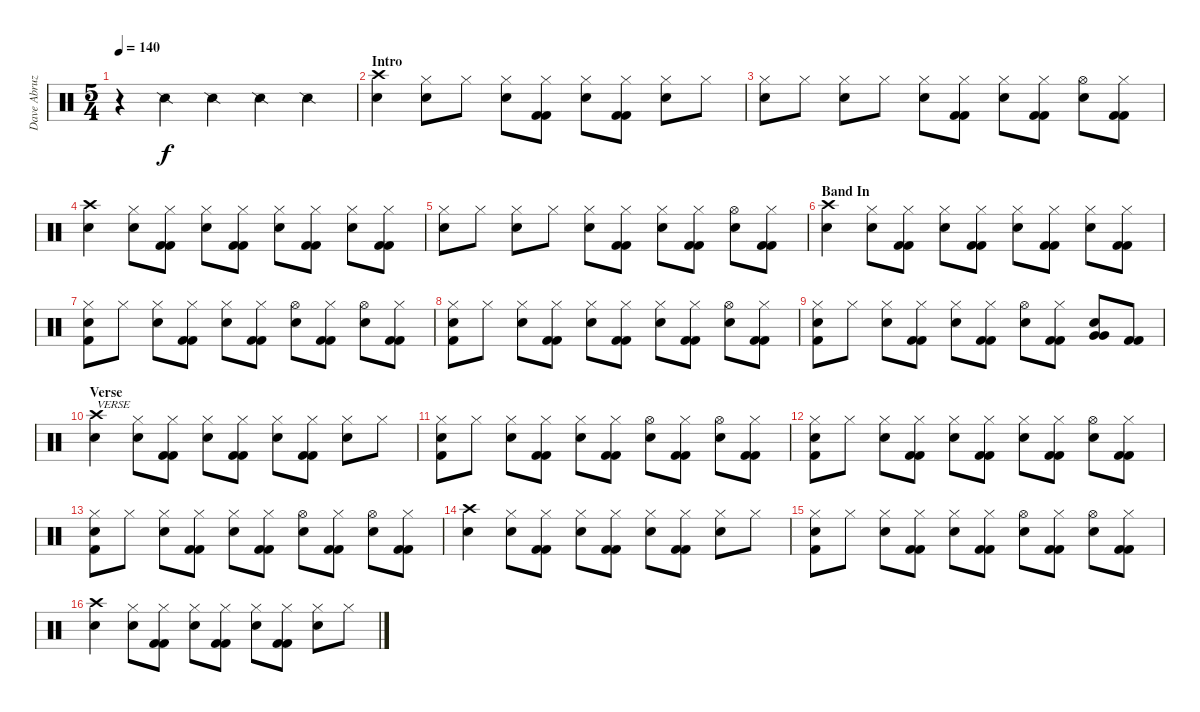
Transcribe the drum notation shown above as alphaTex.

\track ("Dave Abruzzese" "Dave Abruz") {instrument percussion}
\staff {score}
\articulation defaults
\ts (5 4)
\tempo 140
\clef neutral
\ks c
r.4{dy f} "Snare (side stick) 2".4 "Snare (side stick) 2".4 "Snare (side stick) 2".4 "Snare (side stick) 2".4 |
\section ("" "Intro")
("Electric Snare (hit)" "Crash high (hit)").4 ("Electric Snare (hit)" "Hi-Hat (closed)").8 "Hi-Hat (closed)".8 ("Electric Snare (hit)" "Hi-Hat (closed)").8 ("Kick (hit) 2" "Kick (hit) 2" "Hi-Hat (closed)").8 ("Electric Snare (hit)" "Hi-Hat (closed)").8 ("Kick (hit) 2" "Kick (hit) 2" "Hi-Hat (closed)").8 ("Electric Snare (hit)" "Hi-Hat (closed)").8 "Hi-Hat (closed)".8 |
("Electric Snare (hit)" "Hi-Hat (closed)").8 "Hi-Hat (closed)".8 ("Electric Snare (hit)" "Hi-Hat (closed)").8 "Hi-Hat (closed)".8 ("Electric Snare (hit)" "Hi-Hat (closed)").8 ("Kick (hit) 2" "Kick (hit) 2" "Hi-Hat (closed)").8 ("Electric Snare (hit)" "Hi-Hat (closed)").8 ("Kick (hit) 2" "Kick (hit) 2" "Hi-Hat (closed)").8 ("Electric Snare (hit)" "Hi-Hat (open)").8 ("Kick (hit) 2" "Kick (hit) 2" "Hi-Hat (closed)").8 |
("Electric Snare (hit)" "Crash high (hit)").4 ("Electric Snare (hit)" "Hi-Hat (closed)").8 ("Kick (hit) 2" "Kick (hit) 2" "Hi-Hat (closed)").8 ("Electric Snare (hit)" "Hi-Hat (closed)").8 ("Kick (hit) 2" "Kick (hit) 2" "Hi-Hat (closed)").8 ("Electric Snare (hit)" "Hi-Hat (closed)").8 ("Kick (hit) 2" "Kick (hit) 2" "Hi-Hat (closed)").8 ("Electric Snare (hit)" "Hi-Hat (closed)").8 ("Kick (hit) 2" "Kick (hit) 2" "Hi-Hat (closed)").8 |
("Electric Snare (hit)" "Hi-Hat (closed)").8 "Hi-Hat (closed)".8 ("Electric Snare (hit)" "Hi-Hat (closed)").8 "Hi-Hat (closed)".8 ("Electric Snare (hit)" "Hi-Hat (closed)").8 ("Kick (hit) 2" "Kick (hit) 2" "Hi-Hat (closed)").8 ("Electric Snare (hit)" "Hi-Hat (closed)").8 ("Kick (hit) 2" "Kick (hit) 2" "Hi-Hat (closed)").8 ("Electric Snare (hit)" "Hi-Hat (open)").8 ("Kick (hit) 2" "Kick (hit) 2" "Hi-Hat (closed)").8 |
\section ("" "Band In")
("Electric Snare (hit)" "Crash high (hit)").4 ("Electric Snare (hit)" "Hi-Hat (closed)").8 ("Kick (hit) 2" "Kick (hit) 2" "Hi-Hat (closed)").8 ("Electric Snare (hit)" "Hi-Hat (closed)").8 ("Kick (hit) 2" "Kick (hit) 2" "Hi-Hat (closed)").8 ("Electric Snare (hit)" "Hi-Hat (closed)").8 ("Kick (hit) 2" "Kick (hit) 2" "Hi-Hat (closed)").8 ("Electric Snare (hit)" "Hi-Hat (closed)").8 ("Kick (hit) 2" "Kick (hit) 2" "Hi-Hat (closed)").8 |
("Kick (hit) 2" "Electric Snare (hit)" "Hi-Hat (closed)").8 "Hi-Hat (closed)".8 ("Electric Snare (hit)" "Hi-Hat (closed)").8 ("Kick (hit) 2" "Kick (hit) 2" "Hi-Hat (closed)").8 ("Electric Snare (hit)" "Hi-Hat (closed)").8 ("Kick (hit) 2" "Kick (hit) 2" "Hi-Hat (closed)").8 ("Electric Snare (hit)" "Hi-Hat (open)").8 ("Kick (hit) 2" "Kick (hit) 2" "Hi-Hat (closed)").8 ("Electric Snare (hit)" "Hi-Hat (open)").8 ("Kick (hit) 2" "Kick (hit) 2" "Hi-Hat (closed)").8 |
("Kick (hit) 2" "Electric Snare (hit)" "Hi-Hat (closed)").8 "Hi-Hat (closed)".8 ("Electric Snare (hit)" "Hi-Hat (closed)").8 ("Kick (hit) 2" "Kick (hit) 2" "Hi-Hat (closed)").8 ("Electric Snare (hit)" "Hi-Hat (closed)").8 ("Kick (hit) 2" "Kick (hit) 2" "Hi-Hat (closed)").8 ("Electric Snare (hit)" "Hi-Hat (closed)").8 ("Kick (hit) 2" "Kick (hit) 2" "Hi-Hat (closed)").8 ("Electric Snare (hit)" "Hi-Hat (open)").8 ("Kick (hit) 2" "Kick (hit) 2" "Hi-Hat (closed)").8 |
("Kick (hit) 2" "Electric Snare (hit)" "Hi-Hat (closed)").8 "Hi-Hat (closed)".8 ("Electric Snare (hit)" "Hi-Hat (closed)").8 ("Kick (hit) 2" "Kick (hit) 2" "Hi-Hat (closed)").8 ("Electric Snare (hit)" "Hi-Hat (closed)").8 ("Kick (hit) 2" "Kick (hit) 2" "Hi-Hat (closed)").8 ("Electric Snare (hit)" "Hi-Hat (open)").8 ("Kick (hit) 2" "Kick (hit) 2" "Hi-Hat (closed)").8 ("Electric Snare (hit)" "Very Low Tom (hit)" "Very Low Tom (hit)").8 ("Kick (hit) 2" "Kick (hit) 2").8 |
\section ("" "Verse")
("Electric Snare (hit)" "Crash high (hit)").4{txt "VERSE"} ("Electric Snare (hit)" "Hi-Hat (closed)").8 ("Kick (hit) 2" "Kick (hit) 2" "Hi-Hat (closed)").8 ("Electric Snare (hit)" "Hi-Hat (closed)").8 ("Kick (hit) 2" "Kick (hit) 2" "Hi-Hat (closed)").8 ("Electric Snare (hit)" "Hi-Hat (closed)").8 ("Kick (hit) 2" "Kick (hit) 2" "Hi-Hat (closed)").8 ("Electric Snare (hit)" "Hi-Hat (closed)").8 "Hi-Hat (closed)".8 |
("Kick (hit) 2" "Electric Snare (hit)" "Hi-Hat (closed)").8 "Hi-Hat (closed)".8 ("Electric Snare (hit)" "Hi-Hat (closed)").8 ("Kick (hit) 2" "Kick (hit) 2" "Hi-Hat (closed)").8 ("Electric Snare (hit)" "Hi-Hat (closed)").8 ("Kick (hit) 2" "Kick (hit) 2" "Hi-Hat (closed)").8 ("Electric Snare (hit)" "Hi-Hat (open)").8 ("Kick (hit) 2" "Kick (hit) 2" "Hi-Hat (closed)").8 ("Electric Snare (hit)" "Hi-Hat (open)").8 ("Kick (hit) 2" "Kick (hit) 2" "Hi-Hat (closed)").8 |
("Kick (hit) 2" "Electric Snare (hit)" "Hi-Hat (closed)").8 "Hi-Hat (closed)".8 ("Electric Snare (hit)" "Hi-Hat (closed)").8 ("Kick (hit) 2" "Kick (hit) 2" "Hi-Hat (closed)").8 ("Electric Snare (hit)" "Hi-Hat (closed)").8 ("Kick (hit) 2" "Kick (hit) 2" "Hi-Hat (closed)").8 ("Electric Snare (hit)" "Hi-Hat (closed)").8 ("Kick (hit) 2" "Kick (hit) 2" "Hi-Hat (closed)").8 ("Electric Snare (hit)" "Hi-Hat (open)").8 ("Kick (hit) 2" "Kick (hit) 2" "Hi-Hat (closed)").8 |
("Kick (hit) 2" "Electric Snare (hit)" "Hi-Hat (closed)").8 "Hi-Hat (closed)".8 ("Electric Snare (hit)" "Hi-Hat (closed)").8 ("Kick (hit) 2" "Kick (hit) 2" "Hi-Hat (closed)").8 ("Electric Snare (hit)" "Hi-Hat (closed)").8 ("Kick (hit) 2" "Kick (hit) 2" "Hi-Hat (closed)").8 ("Electric Snare (hit)" "Hi-Hat (open)").8 ("Kick (hit) 2" "Kick (hit) 2" "Hi-Hat (closed)").8 ("Electric Snare (hit)" "Hi-Hat (open)").8 ("Kick (hit) 2" "Kick (hit) 2" "Hi-Hat (closed)").8 |
("Electric Snare (hit)" "Crash high (hit)").4 ("Electric Snare (hit)" "Hi-Hat (closed)").8 ("Kick (hit) 2" "Kick (hit) 2" "Hi-Hat (closed)").8 ("Electric Snare (hit)" "Hi-Hat (closed)").8 ("Kick (hit) 2" "Kick (hit) 2" "Hi-Hat (closed)").8 ("Electric Snare (hit)" "Hi-Hat (closed)").8 ("Kick (hit) 2" "Kick (hit) 2" "Hi-Hat (closed)").8 ("Electric Snare (hit)" "Hi-Hat (closed)").8 "Hi-Hat (closed)".8 |
("Kick (hit) 2" "Electric Snare (hit)" "Hi-Hat (closed)").8 "Hi-Hat (closed)".8 ("Electric Snare (hit)" "Hi-Hat (closed)").8 ("Kick (hit) 2" "Kick (hit) 2" "Hi-Hat (closed)").8 ("Electric Snare (hit)" "Hi-Hat (closed)").8 ("Kick (hit) 2" "Kick (hit) 2" "Hi-Hat (closed)").8 ("Electric Snare (hit)" "Hi-Hat (open)").8 ("Kick (hit) 2" "Kick (hit) 2" "Hi-Hat (closed)").8 ("Electric Snare (hit)" "Hi-Hat (open)").8 ("Kick (hit) 2" "Kick (hit) 2" "Hi-Hat (closed)").8 |
("Electric Snare (hit)" "Crash high (hit)").4 ("Electric Snare (hit)" "Hi-Hat (closed)").8 ("Kick (hit) 2" "Kick (hit) 2" "Hi-Hat (closed)").8 ("Electric Snare (hit)" "Hi-Hat (closed)").8 ("Kick (hit) 2" "Kick (hit) 2" "Hi-Hat (closed)").8 ("Electric Snare (hit)" "Hi-Hat (closed)").8 ("Kick (hit) 2" "Kick (hit) 2" "Hi-Hat (closed)").8 ("Electric Snare (hit)" "Hi-Hat (closed)").8 "Hi-Hat (closed)".8
